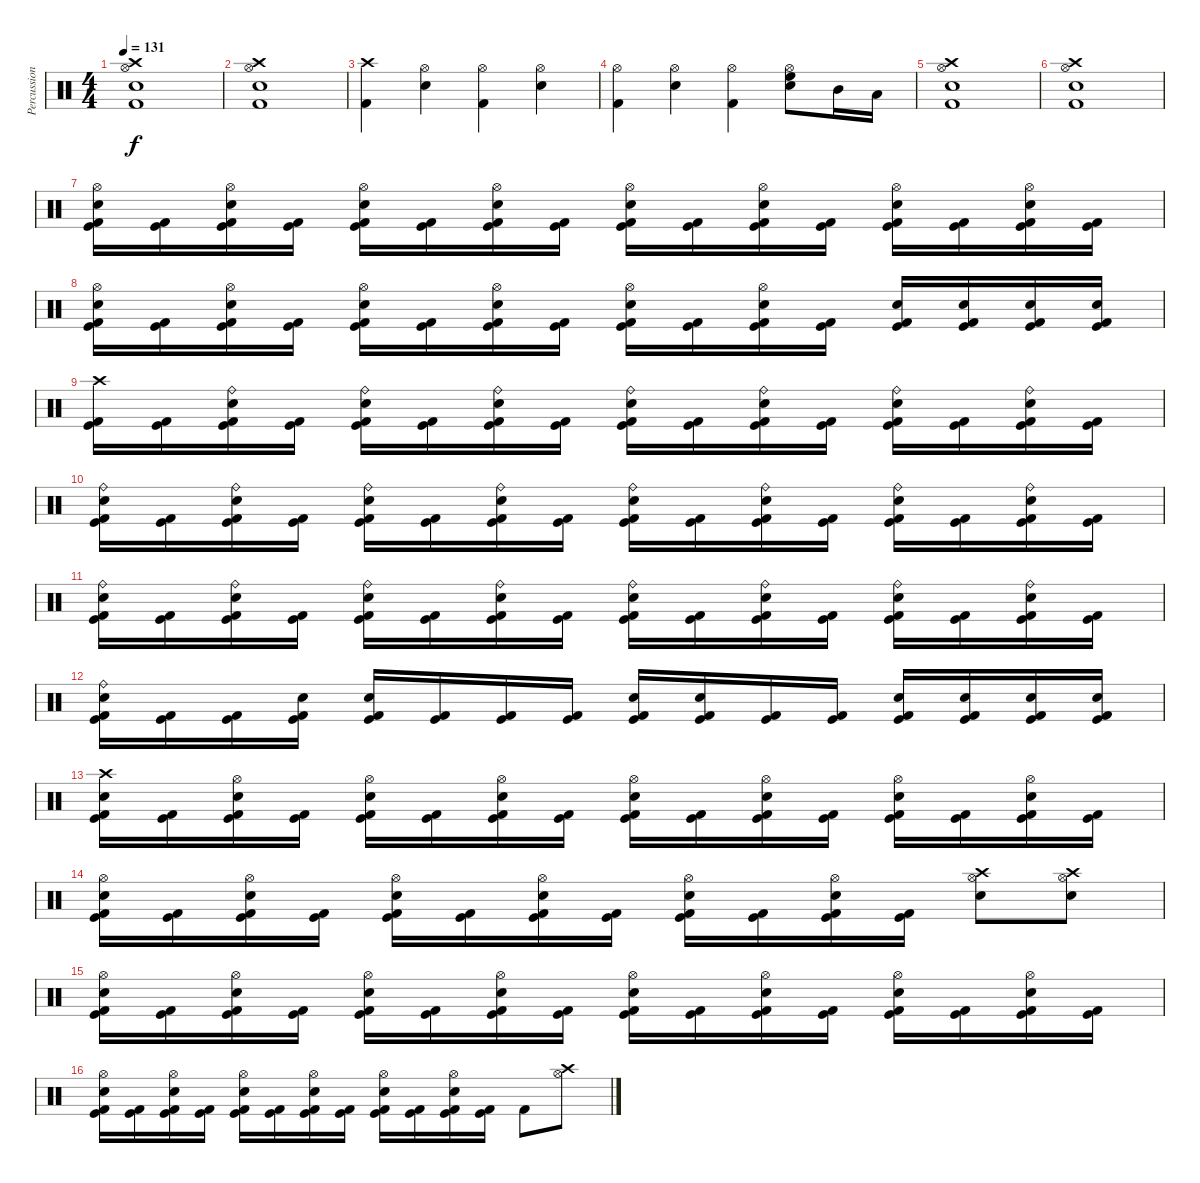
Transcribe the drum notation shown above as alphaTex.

\track ("Percussion" "Percussion") {instrument percussion}
\staff {score}
\articulation defaults
\ts (4 4)
\tempo 131
\clef neutral
\ks c
("Crash high (hit)" "Hi-Hat (open)" "Snare (hit) 2" "Kick (hit) 2").1{dy f} |
("Crash high (hit)" "Hi-Hat (open)" "Snare (hit) 2" "Kick (hit) 2").1 |
("Crash high (hit)" "Kick (hit) 2").4 ("Hi-Hat (open)" "Snare (hit) 2").4 ("Hi-Hat (open)" "Kick (hit) 2").4 ("Hi-Hat (open)" "Snare (hit) 2").4 |
("Hi-Hat (open)" "Kick (hit) 2").4 ("Hi-Hat (open)" "Snare (hit) 2").4 ("Hi-Hat (open)" "Kick (hit) 2").4 ("Hi-Hat (open)" "High Floor Tom (hit)" "Snare (hit) 2").8 "Mid Tom (hit)".16 "Low Tom (hit)".16 |
("Crash high (hit)" "Hi-Hat (open)" "Snare (hit) 2" "Kick (hit) 2").1 |
("Crash high (hit)" "Hi-Hat (open)" "Snare (hit) 2" "Kick (hit) 2").1 |
("Snare (hit) 2" "Hi-Hat (open)" "Kick (hit)" "Kick (hit) 2").16 ("Kick (hit)" "Kick (hit) 2").16 ("Snare (hit) 2" "Hi-Hat (open)" "Kick (hit)" "Kick (hit) 2").16 ("Kick (hit)" "Kick (hit) 2").16 ("Snare (hit) 2" "Hi-Hat (open)" "Kick (hit)" "Kick (hit) 2").16 ("Kick (hit)" "Kick (hit) 2").16 ("Snare (hit) 2" "Hi-Hat (open)" "Kick (hit)" "Kick (hit) 2").16 ("Kick (hit)" "Kick (hit) 2").16 ("Snare (hit) 2" "Hi-Hat (open)" "Kick (hit)" "Kick (hit) 2").16 ("Kick (hit)" "Kick (hit) 2").16 ("Snare (hit) 2" "Hi-Hat (open)" "Kick (hit)" "Kick (hit) 2").16 ("Kick (hit)" "Kick (hit) 2").16 ("Snare (hit) 2" "Hi-Hat (open)" "Kick (hit)" "Kick (hit) 2").16 ("Kick (hit)" "Kick (hit) 2").16 ("Snare (hit) 2" "Hi-Hat (open)" "Kick (hit)" "Kick (hit) 2").16 ("Kick (hit)" "Kick (hit) 2").16 |
("Snare (hit) 2" "Hi-Hat (open)" "Kick (hit)" "Kick (hit) 2").16 ("Kick (hit)" "Kick (hit) 2").16 ("Snare (hit) 2" "Hi-Hat (open)" "Kick (hit)" "Kick (hit) 2").16 ("Kick (hit)" "Kick (hit) 2").16 ("Snare (hit) 2" "Hi-Hat (open)" "Kick (hit)" "Kick (hit) 2").16 ("Kick (hit)" "Kick (hit) 2").16 ("Snare (hit) 2" "Hi-Hat (open)" "Kick (hit)" "Kick (hit) 2").16 ("Kick (hit)" "Kick (hit) 2").16 ("Snare (hit) 2" "Hi-Hat (open)" "Kick (hit)" "Kick (hit) 2").16 ("Kick (hit)" "Kick (hit) 2").16 ("Snare (hit) 2" "Hi-Hat (open)" "Kick (hit)" "Kick (hit) 2").16 ("Kick (hit)" "Kick (hit) 2").16 ("Snare (hit) 2" "Kick (hit)" "Kick (hit) 2").16 ("Snare (hit) 2" "Kick (hit)" "Kick (hit) 2").16 ("Snare (hit) 2" "Kick (hit)" "Kick (hit) 2").16 ("Snare (hit) 2" "Kick (hit)" "Kick (hit) 2").16 |
("Crash high (hit)" "Kick (hit)" "Kick (hit) 2").16 ("Kick (hit)" "Kick (hit) 2").16 ("Snare (hit) 2" "Ride (bell)" "Kick (hit)" "Kick (hit) 2").16 ("Kick (hit)" "Kick (hit) 2").16 ("Snare (hit) 2" "Ride (bell)" "Kick (hit)" "Kick (hit) 2").16 ("Kick (hit)" "Kick (hit) 2").16 ("Snare (hit) 2" "Ride (bell)" "Kick (hit)" "Kick (hit) 2").16 ("Kick (hit)" "Kick (hit) 2").16 ("Snare (hit) 2" "Ride (bell)" "Kick (hit)" "Kick (hit) 2").16 ("Kick (hit)" "Kick (hit) 2").16 ("Snare (hit) 2" "Ride (bell)" "Kick (hit)" "Kick (hit) 2").16 ("Kick (hit)" "Kick (hit) 2").16 ("Snare (hit) 2" "Ride (bell)" "Kick (hit)" "Kick (hit) 2").16 ("Kick (hit)" "Kick (hit) 2").16 ("Snare (hit) 2" "Ride (bell)" "Kick (hit)" "Kick (hit) 2").16 ("Kick (hit)" "Kick (hit) 2").16 |
("Snare (hit) 2" "Ride (bell)" "Kick (hit)" "Kick (hit) 2").16 ("Kick (hit)" "Kick (hit) 2").16 ("Snare (hit) 2" "Ride (bell)" "Kick (hit)" "Kick (hit) 2").16 ("Kick (hit)" "Kick (hit) 2").16 ("Snare (hit) 2" "Ride (bell)" "Kick (hit)" "Kick (hit) 2").16 ("Kick (hit)" "Kick (hit) 2").16 ("Snare (hit) 2" "Ride (bell)" "Kick (hit)" "Kick (hit) 2").16 ("Kick (hit)" "Kick (hit) 2").16 ("Snare (hit) 2" "Ride (bell)" "Kick (hit)" "Kick (hit) 2").16 ("Kick (hit)" "Kick (hit) 2").16 ("Snare (hit) 2" "Ride (bell)" "Kick (hit)" "Kick (hit) 2").16 ("Kick (hit)" "Kick (hit) 2").16 ("Snare (hit) 2" "Ride (bell)" "Kick (hit)" "Kick (hit) 2").16 ("Kick (hit)" "Kick (hit) 2").16 ("Snare (hit) 2" "Ride (bell)" "Kick (hit)" "Kick (hit) 2").16 ("Kick (hit)" "Kick (hit) 2").16 |
("Snare (hit) 2" "Ride (bell)" "Kick (hit)" "Kick (hit) 2").16 ("Kick (hit)" "Kick (hit) 2").16 ("Snare (hit) 2" "Ride (bell)" "Kick (hit)" "Kick (hit) 2").16 ("Kick (hit)" "Kick (hit) 2").16 ("Snare (hit) 2" "Ride (bell)" "Kick (hit)" "Kick (hit) 2").16 ("Kick (hit)" "Kick (hit) 2").16 ("Snare (hit) 2" "Ride (bell)" "Kick (hit)" "Kick (hit) 2").16 ("Kick (hit)" "Kick (hit) 2").16 ("Snare (hit) 2" "Ride (bell)" "Kick (hit)" "Kick (hit) 2").16 ("Kick (hit)" "Kick (hit) 2").16 ("Snare (hit) 2" "Ride (bell)" "Kick (hit)" "Kick (hit) 2").16 ("Kick (hit)" "Kick (hit) 2").16 ("Snare (hit) 2" "Ride (bell)" "Kick (hit)" "Kick (hit) 2").16 ("Kick (hit)" "Kick (hit) 2").16 ("Snare (hit) 2" "Ride (bell)" "Kick (hit)" "Kick (hit) 2").16 ("Kick (hit)" "Kick (hit) 2").16 |
("Snare (hit) 2" "Ride (bell)" "Kick (hit)" "Kick (hit) 2").16 ("Kick (hit)" "Kick (hit) 2").16 ("Kick (hit)" "Kick (hit) 2").16 ("Snare (hit) 2" "Kick (hit)" "Kick (hit) 2").16 ("Snare (hit) 2" "Kick (hit)" "Kick (hit) 2").16 ("Kick (hit)" "Kick (hit) 2").16 ("Kick (hit)" "Kick (hit) 2").16 ("Kick (hit)" "Kick (hit) 2").16 ("Snare (hit) 2" "Kick (hit)" "Kick (hit) 2").16 ("Snare (hit) 2" "Kick (hit)" "Kick (hit) 2").16 ("Kick (hit)" "Kick (hit) 2").16 ("Kick (hit)" "Kick (hit) 2").16 ("Snare (hit) 2" "Kick (hit)" "Kick (hit) 2").16 ("Snare (hit) 2" "Kick (hit)" "Kick (hit) 2").16 ("Snare (hit) 2" "Kick (hit)" "Kick (hit) 2").16 ("Snare (hit) 2" "Kick (hit)" "Kick (hit) 2").16 |
("Snare (hit) 2" "Crash high (hit)" "Kick (hit)" "Kick (hit) 2").16 ("Kick (hit)" "Kick (hit) 2").16 ("Snare (hit) 2" "Hi-Hat (open)" "Kick (hit)" "Kick (hit) 2").16 ("Kick (hit)" "Kick (hit) 2").16 ("Snare (hit) 2" "Hi-Hat (open)" "Kick (hit)" "Kick (hit) 2").16 ("Kick (hit)" "Kick (hit) 2").16 ("Snare (hit) 2" "Hi-Hat (open)" "Kick (hit)" "Kick (hit) 2").16 ("Kick (hit)" "Kick (hit) 2").16 ("Snare (hit) 2" "Hi-Hat (open)" "Kick (hit)" "Kick (hit) 2").16 ("Kick (hit)" "Kick (hit) 2").16 ("Snare (hit) 2" "Hi-Hat (open)" "Kick (hit)" "Kick (hit) 2").16 ("Kick (hit)" "Kick (hit) 2").16 ("Snare (hit) 2" "Hi-Hat (open)" "Kick (hit)" "Kick (hit) 2").16 ("Kick (hit)" "Kick (hit) 2").16 ("Snare (hit) 2" "Hi-Hat (open)" "Kick (hit)" "Kick (hit) 2").16 ("Kick (hit)" "Kick (hit) 2").16 |
("Snare (hit) 2" "Hi-Hat (open)" "Kick (hit)" "Kick (hit) 2").16 ("Kick (hit)" "Kick (hit) 2").16 ("Snare (hit) 2" "Hi-Hat (open)" "Kick (hit)" "Kick (hit) 2").16 ("Kick (hit)" "Kick (hit) 2").16 ("Snare (hit) 2" "Hi-Hat (open)" "Kick (hit)" "Kick (hit) 2").16 ("Kick (hit)" "Kick (hit) 2").16 ("Snare (hit) 2" "Hi-Hat (open)" "Kick (hit)" "Kick (hit) 2").16 ("Kick (hit)" "Kick (hit) 2").16 ("Snare (hit) 2" "Hi-Hat (open)" "Kick (hit)" "Kick (hit) 2").16 ("Kick (hit)" "Kick (hit) 2").16 ("Snare (hit) 2" "Hi-Hat (open)" "Kick (hit)" "Kick (hit) 2").16 ("Kick (hit)" "Kick (hit) 2").16 ("Hi-Hat (open)" "Crash high (hit)" "Snare (hit) 2").8 ("Hi-Hat (open)" "Crash high (hit)" "Snare (hit) 2").8 |
("Snare (hit) 2" "Hi-Hat (open)" "Kick (hit)" "Kick (hit) 2").16 ("Kick (hit)" "Kick (hit) 2").16 ("Snare (hit) 2" "Hi-Hat (open)" "Kick (hit)" "Kick (hit) 2").16 ("Kick (hit)" "Kick (hit) 2").16 ("Snare (hit) 2" "Hi-Hat (open)" "Kick (hit)" "Kick (hit) 2").16 ("Kick (hit)" "Kick (hit) 2").16 ("Snare (hit) 2" "Hi-Hat (open)" "Kick (hit)" "Kick (hit) 2").16 ("Kick (hit)" "Kick (hit) 2").16 ("Snare (hit) 2" "Hi-Hat (open)" "Kick (hit)" "Kick (hit) 2").16 ("Kick (hit)" "Kick (hit) 2").16 ("Snare (hit) 2" "Hi-Hat (open)" "Kick (hit)" "Kick (hit) 2").16 ("Kick (hit)" "Kick (hit) 2").16 ("Snare (hit) 2" "Hi-Hat (open)" "Kick (hit)" "Kick (hit) 2").16 ("Kick (hit)" "Kick (hit) 2").16 ("Snare (hit) 2" "Hi-Hat (open)" "Kick (hit)" "Kick (hit) 2").16 ("Kick (hit)" "Kick (hit) 2").16 |
("Snare (hit) 2" "Hi-Hat (open)" "Kick (hit)" "Kick (hit) 2").16 ("Kick (hit)" "Kick (hit) 2").16 ("Snare (hit) 2" "Hi-Hat (open)" "Kick (hit)" "Kick (hit) 2").16 ("Kick (hit)" "Kick (hit) 2").16 ("Snare (hit) 2" "Hi-Hat (open)" "Kick (hit)" "Kick (hit) 2").16 ("Kick (hit)" "Kick (hit) 2").16 ("Snare (hit) 2" "Hi-Hat (open)" "Kick (hit)" "Kick (hit) 2").16 ("Kick (hit)" "Kick (hit) 2").16 ("Snare (hit) 2" "Hi-Hat (open)" "Kick (hit)" "Kick (hit) 2").16 ("Kick (hit)" "Kick (hit) 2").16 ("Snare (hit) 2" "Hi-Hat (open)" "Kick (hit)" "Kick (hit) 2").16 ("Kick (hit)" "Kick (hit) 2").16 "Kick (hit) 2".8 ("Hi-Hat (open)" "Crash high (hit)").8
